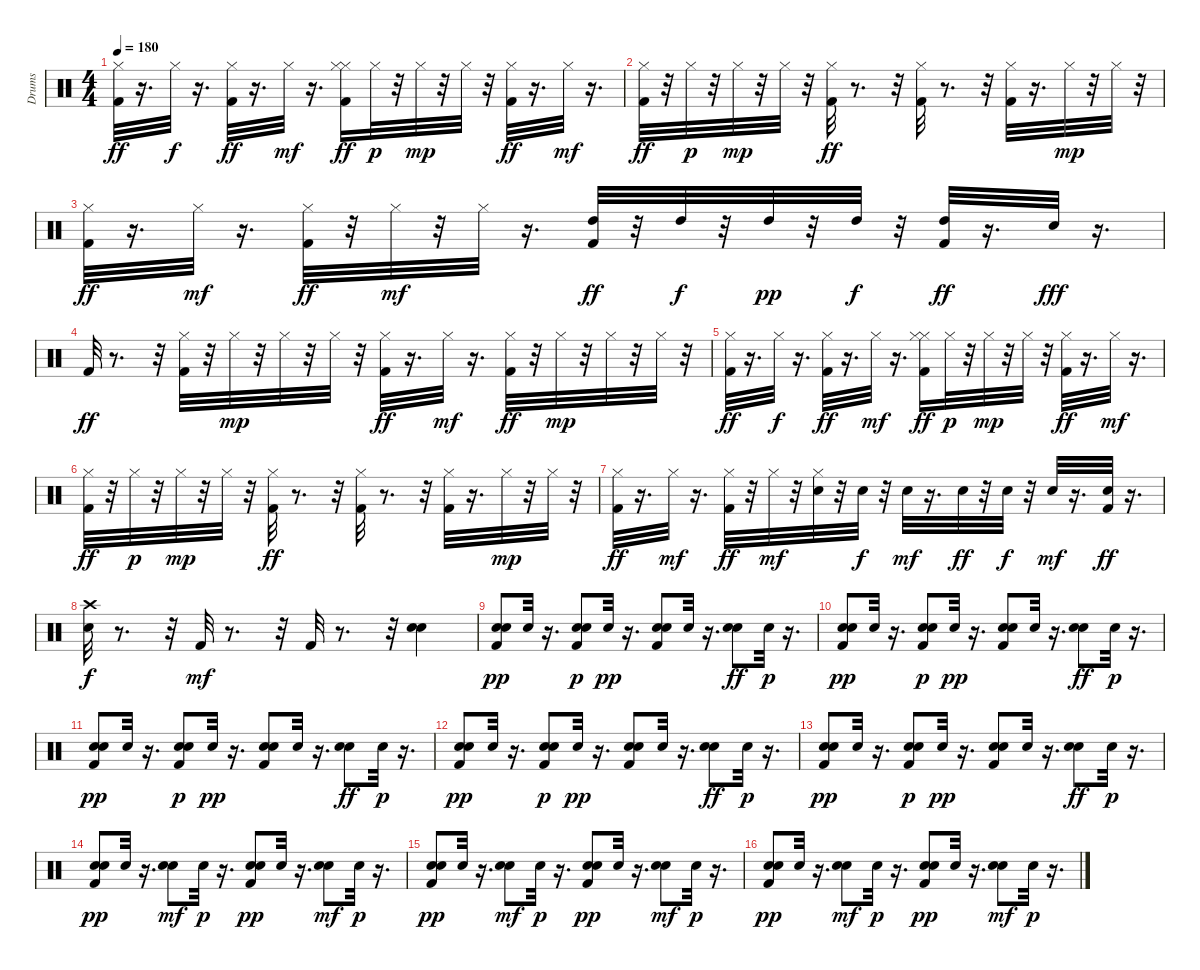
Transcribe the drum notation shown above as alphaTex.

\track ("Drums" "Drums") {instrument percussion}
\staff {score}
\articulation defaults
\ts (4 4)
\tempo 180
\clef neutral
\ks c
("Hi-Hat (closed)" "Kick (hit) 2").32{dy ff} r.16{d} "Hi-Hat (closed)".32{dy f} r.16{d} ("Hi-Hat (closed)" "Kick (hit) 2").32{dy ff} r.16{d} "Hi-Hat (closed)".32{dy mf} r.16{d} ("Hi-Hat (closed)" "Hi-Hat (closed)" "Kick (hit) 2").16{dy ff} "Hi-Hat (closed)".32{dy p} r.32 "Hi-Hat (closed)".32{dy mp} r.32 "Hi-Hat (closed)".32 r.32 ("Hi-Hat (closed)" "Kick (hit) 2").32{dy ff} r.16{d} "Hi-Hat (closed)".32{dy mf} r.16{d} |
("Hi-Hat (closed)" "Kick (hit) 2").32{dy ff} r.32 "Hi-Hat (closed)".32{dy p} r.32 "Hi-Hat (closed)".32{dy mp} r.32 "Hi-Hat (closed)".32 r.32 ("Hi-Hat (closed)" "Kick (hit) 2").32{dy ff} r.8{d} r.32 ("Hi-Hat (closed)" "Kick (hit) 2").32 r.8{d} r.32 ("Hi-Hat (closed)" "Kick (hit) 2").32 r.16{d} "Hi-Hat (closed)".32{dy mp} r.32 "Hi-Hat (closed)".32 r.32 |
("Hi-Hat (closed)" "Kick (hit) 2").32{dy ff} r.16{d} "Hi-Hat (closed)".32{dy mf} r.16{d} ("Hi-Hat (closed)" "Kick (hit) 2").32{dy ff} r.32 "Hi-Hat (closed)".32{dy mf} r.32 "Hi-Hat (closed)".32 r.16{d} ("High Tom (hit)" "Kick (hit) 2").32{dy ff} r.32 "High Tom (hit)".32{dy f} r.32 "High Tom (hit)".32{dy pp} r.32 "High Tom (hit)".32{dy f} r.32 ("High Tom (hit)" "Kick (hit) 2").32{dy ff} r.16{d} "Snare (hit) 2".32{dy fff} r.16{d} |
"Kick (hit) 2".32{dy ff} r.8{d} r.32 ("Hi-Hat (closed)" "Kick (hit) 2").32 r.32 "Hi-Hat (closed)".32{dy mp} r.32 "Hi-Hat (closed)".32 r.32 "Hi-Hat (closed)".32 r.32 ("Hi-Hat (closed)" "Kick (hit) 2").32{dy ff} r.16{d} "Hi-Hat (closed)".32{dy mf} r.16{d} ("Hi-Hat (closed)" "Kick (hit) 2").32{dy ff} r.32 "Hi-Hat (closed)".32{dy mp} r.32 "Hi-Hat (closed)".32 r.32 "Hi-Hat (closed)".32 r.32 |
("Hi-Hat (closed)" "Kick (hit) 2").32{dy ff} r.16{d} "Hi-Hat (closed)".32{dy f} r.16{d} ("Hi-Hat (closed)" "Kick (hit) 2").32{dy ff} r.16{d} "Hi-Hat (closed)".32{dy mf} r.16{d} ("Hi-Hat (closed)" "Hi-Hat (closed)" "Kick (hit) 2").16{dy ff} "Hi-Hat (closed)".32{dy p} r.32 "Hi-Hat (closed)".32{dy mp} r.32 "Hi-Hat (closed)".32 r.32 ("Hi-Hat (closed)" "Kick (hit) 2").32{dy ff} r.16{d} "Hi-Hat (closed)".32{dy mf} r.16{d} |
("Hi-Hat (closed)" "Kick (hit) 2").32{dy ff} r.32 "Hi-Hat (closed)".32{dy p} r.32 "Hi-Hat (closed)".32{dy mp} r.32 "Hi-Hat (closed)".32 r.32 ("Hi-Hat (closed)" "Kick (hit) 2").32{dy ff} r.8{d} r.32 ("Hi-Hat (closed)" "Kick (hit) 2").32 r.8{d} r.32 ("Hi-Hat (closed)" "Kick (hit) 2").32 r.16{d} "Hi-Hat (closed)".32{dy mp} r.32 "Hi-Hat (closed)".32 r.32 |
("Hi-Hat (closed)" "Kick (hit) 2").32{dy ff} r.16{d} "Hi-Hat (closed)".32{dy mf} r.16{d} ("Hi-Hat (closed)" "Kick (hit) 2").32{dy ff} r.32 "Hi-Hat (closed)".32{dy mf} r.32 ("Snare (hit) 2" "Hi-Hat (closed)").32 r.32 "Snare (hit) 2".32{dy f} r.32 "Snare (hit) 2".32{dy mf} r.16{d} "Snare (hit) 2".32{dy ff} r.32 "Snare (hit) 2".32{dy f} r.32 "Snare (hit) 2".32{dy mf} r.16{d} ("Kick (hit) 2" "Snare (hit) 2").32{dy ff} r.16{d} |
("Snare (hit) 2" "Crash high (hit)").32{dy f} r.8{d} r.32 "Kick (hit) 2".32{dy mf} r.8{d} r.32 "Kick (hit) 2".32 r.8{d} r.32 ("Snare (hit) 2" "Snare (hit) 2").4 |
("Snare (hit) 2" "Kick (hit) 2" "Snare (hit) 2").8{dy pp} "Snare (hit) 2".32 r.16{d} ("Snare (hit) 2" "Kick (hit) 2" "Snare (hit) 2").8{dy p} "Snare (hit) 2".32{dy pp} r.16{d} ("Snare (hit) 2" "Kick (hit) 2" "Snare (hit) 2").8 "Snare (hit) 2".32 r.16{d} ("Snare (hit) 2" "Snare (hit) 2").8{dy ff} "Snare (hit) 2".32{dy p} r.16{d} |
("Snare (hit) 2" "Kick (hit) 2" "Snare (hit) 2").8{dy pp} "Snare (hit) 2".32 r.16{d} ("Snare (hit) 2" "Kick (hit) 2" "Snare (hit) 2").8{dy p} "Snare (hit) 2".32{dy pp} r.16{d} ("Snare (hit) 2" "Kick (hit) 2" "Snare (hit) 2").8 "Snare (hit) 2".32 r.16{d} ("Snare (hit) 2" "Snare (hit) 2").8{dy ff} "Snare (hit) 2".32{dy p} r.16{d} |
("Snare (hit) 2" "Kick (hit) 2" "Snare (hit) 2").8{dy pp} "Snare (hit) 2".32 r.16{d} ("Snare (hit) 2" "Kick (hit) 2" "Snare (hit) 2").8{dy p} "Snare (hit) 2".32{dy pp} r.16{d} ("Snare (hit) 2" "Kick (hit) 2" "Snare (hit) 2").8 "Snare (hit) 2".32 r.16{d} ("Snare (hit) 2" "Snare (hit) 2").8{dy ff} "Snare (hit) 2".32{dy p} r.16{d} |
("Snare (hit) 2" "Kick (hit) 2" "Snare (hit) 2").8{dy pp} "Snare (hit) 2".32 r.16{d} ("Snare (hit) 2" "Kick (hit) 2" "Snare (hit) 2").8{dy p} "Snare (hit) 2".32{dy pp} r.16{d} ("Snare (hit) 2" "Kick (hit) 2" "Snare (hit) 2").8 "Snare (hit) 2".32 r.16{d} ("Snare (hit) 2" "Snare (hit) 2").8{dy ff} "Snare (hit) 2".32{dy p} r.16{d} |
("Snare (hit) 2" "Kick (hit) 2" "Snare (hit) 2").8{dy pp} "Snare (hit) 2".32 r.16{d} ("Snare (hit) 2" "Kick (hit) 2" "Snare (hit) 2").8{dy p} "Snare (hit) 2".32{dy pp} r.16{d} ("Snare (hit) 2" "Kick (hit) 2" "Snare (hit) 2").8 "Snare (hit) 2".32 r.16{d} ("Snare (hit) 2" "Snare (hit) 2").8{dy ff} "Snare (hit) 2".32{dy p} r.16{d} |
("Snare (hit) 2" "Snare (hit) 2" "Kick (hit) 2").8{dy pp} "Snare (hit) 2".32 r.16{d} ("Snare (hit) 2" "Snare (hit) 2").8{dy mf} "Snare (hit) 2".32{dy p} r.16{d} ("Snare (hit) 2" "Snare (hit) 2" "Kick (hit) 2").8{dy pp} "Snare (hit) 2".32 r.16{d} ("Snare (hit) 2" "Snare (hit) 2").8{dy mf} "Snare (hit) 2".32{dy p} r.16{d} |
("Snare (hit) 2" "Snare (hit) 2" "Kick (hit) 2").8{dy pp} "Snare (hit) 2".32 r.16{d} ("Snare (hit) 2" "Snare (hit) 2").8{dy mf} "Snare (hit) 2".32{dy p} r.16{d} ("Snare (hit) 2" "Snare (hit) 2" "Kick (hit) 2").8{dy pp} "Snare (hit) 2".32 r.16{d} ("Snare (hit) 2" "Snare (hit) 2").8{dy mf} "Snare (hit) 2".32{dy p} r.16{d} |
("Snare (hit) 2" "Snare (hit) 2" "Kick (hit) 2").8{dy pp} "Snare (hit) 2".32 r.16{d} ("Snare (hit) 2" "Snare (hit) 2").8{dy mf} "Snare (hit) 2".32{dy p} r.16{d} ("Snare (hit) 2" "Snare (hit) 2" "Kick (hit) 2").8{dy pp} "Snare (hit) 2".32 r.16{d} ("Snare (hit) 2" "Snare (hit) 2").8{dy mf} "Snare (hit) 2".32{dy p} r.16{d}
